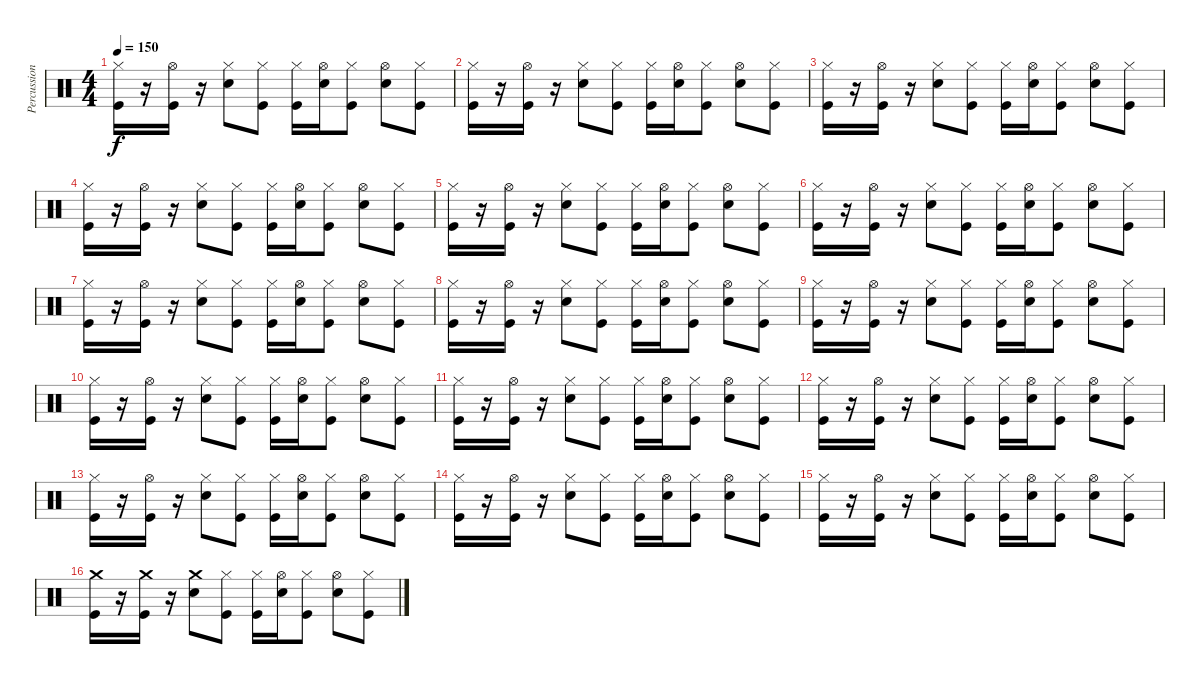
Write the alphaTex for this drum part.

\track ("Percussion" "Percussion") {instrument percussion}
\staff {score}
\articulation defaults
\ts (4 4)
\tempo 150
\clef neutral
\ks c
("Hi-Hat (closed)" "Kick (hit)").16{dy f} r.16 ("Hi-Hat (open)" "Kick (hit)").16 r.16 ("Hi-Hat (closed)" "Electric Snare (hit)").8 ("Hi-Hat (closed)" "Kick (hit)").8 ("Hi-Hat (closed)" "Kick (hit)").16 ("Hi-Hat (open)" "Electric Snare (hit)").16 ("Hi-Hat (closed)" "Kick (hit)").8 ("Hi-Hat (open)" "Electric Snare (hit)").8 ("Hi-Hat (closed)" "Kick (hit)").8 |
("Hi-Hat (closed)" "Kick (hit)").16 r.16 ("Hi-Hat (open)" "Kick (hit)").16 r.16 ("Hi-Hat (closed)" "Electric Snare (hit)").8 ("Hi-Hat (closed)" "Kick (hit)").8 ("Hi-Hat (closed)" "Kick (hit)").16 ("Hi-Hat (open)" "Electric Snare (hit)").16 ("Hi-Hat (closed)" "Kick (hit)").8 ("Hi-Hat (open)" "Electric Snare (hit)").8 ("Hi-Hat (closed)" "Kick (hit)").8 |
("Hi-Hat (closed)" "Kick (hit)").16 r.16 ("Hi-Hat (open)" "Kick (hit)").16 r.16 ("Hi-Hat (closed)" "Electric Snare (hit)").8 ("Hi-Hat (closed)" "Kick (hit)").8 ("Hi-Hat (closed)" "Kick (hit)").16 ("Hi-Hat (open)" "Electric Snare (hit)").16 ("Hi-Hat (closed)" "Kick (hit)").8 ("Hi-Hat (open)" "Electric Snare (hit)").8 ("Hi-Hat (closed)" "Kick (hit)").8 |
("Hi-Hat (closed)" "Kick (hit)").16 r.16 ("Hi-Hat (open)" "Kick (hit)").16 r.16 ("Hi-Hat (closed)" "Electric Snare (hit)").8 ("Hi-Hat (closed)" "Kick (hit)").8 ("Hi-Hat (closed)" "Kick (hit)").16 ("Hi-Hat (open)" "Electric Snare (hit)").16 ("Hi-Hat (closed)" "Kick (hit)").8 ("Hi-Hat (open)" "Electric Snare (hit)").8 ("Hi-Hat (closed)" "Kick (hit)").8 |
("Hi-Hat (closed)" "Kick (hit)").16 r.16 ("Hi-Hat (open)" "Kick (hit)").16 r.16 ("Hi-Hat (closed)" "Electric Snare (hit)").8 ("Hi-Hat (closed)" "Kick (hit)").8 ("Hi-Hat (closed)" "Kick (hit)").16 ("Hi-Hat (open)" "Electric Snare (hit)").16 ("Hi-Hat (closed)" "Kick (hit)").8 ("Hi-Hat (open)" "Electric Snare (hit)").8 ("Hi-Hat (closed)" "Kick (hit)").8 |
("Hi-Hat (closed)" "Kick (hit)").16 r.16 ("Hi-Hat (open)" "Kick (hit)").16 r.16 ("Hi-Hat (closed)" "Electric Snare (hit)").8 ("Hi-Hat (closed)" "Kick (hit)").8 ("Hi-Hat (closed)" "Kick (hit)").16 ("Hi-Hat (open)" "Electric Snare (hit)").16 ("Hi-Hat (closed)" "Kick (hit)").8 ("Hi-Hat (open)" "Electric Snare (hit)").8 ("Hi-Hat (closed)" "Kick (hit)").8 |
("Hi-Hat (closed)" "Kick (hit)").16 r.16 ("Hi-Hat (open)" "Kick (hit)").16 r.16 ("Hi-Hat (closed)" "Electric Snare (hit)").8 ("Hi-Hat (closed)" "Kick (hit)").8 ("Hi-Hat (closed)" "Kick (hit)").16 ("Hi-Hat (open)" "Electric Snare (hit)").16 ("Hi-Hat (closed)" "Kick (hit)").8 ("Hi-Hat (open)" "Electric Snare (hit)").8 ("Hi-Hat (closed)" "Kick (hit)").8 |
("Hi-Hat (closed)" "Kick (hit)").16 r.16 ("Hi-Hat (open)" "Kick (hit)").16 r.16 ("Hi-Hat (closed)" "Electric Snare (hit)").8 ("Hi-Hat (closed)" "Kick (hit)").8 ("Hi-Hat (closed)" "Kick (hit)").16 ("Hi-Hat (open)" "Electric Snare (hit)").16 ("Hi-Hat (closed)" "Kick (hit)").8 ("Hi-Hat (open)" "Electric Snare (hit)").8 ("Hi-Hat (closed)" "Kick (hit)").8 |
("Hi-Hat (closed)" "Kick (hit)").16 r.16 ("Hi-Hat (open)" "Kick (hit)").16 r.16 ("Hi-Hat (closed)" "Electric Snare (hit)").8 ("Hi-Hat (closed)" "Kick (hit)").8 ("Hi-Hat (closed)" "Kick (hit)").16 ("Hi-Hat (open)" "Electric Snare (hit)").16 ("Hi-Hat (closed)" "Kick (hit)").8 ("Hi-Hat (open)" "Electric Snare (hit)").8 ("Hi-Hat (closed)" "Kick (hit)").8 |
("Hi-Hat (closed)" "Kick (hit)").16 r.16 ("Hi-Hat (open)" "Kick (hit)").16 r.16 ("Hi-Hat (closed)" "Electric Snare (hit)").8 ("Hi-Hat (closed)" "Kick (hit)").8 ("Hi-Hat (closed)" "Kick (hit)").16 ("Hi-Hat (open)" "Electric Snare (hit)").16 ("Hi-Hat (closed)" "Kick (hit)").8 ("Hi-Hat (open)" "Electric Snare (hit)").8 ("Hi-Hat (closed)" "Kick (hit)").8 |
("Hi-Hat (closed)" "Kick (hit)").16 r.16 ("Hi-Hat (open)" "Kick (hit)").16 r.16 ("Hi-Hat (closed)" "Electric Snare (hit)").8 ("Hi-Hat (closed)" "Kick (hit)").8 ("Hi-Hat (closed)" "Kick (hit)").16 ("Hi-Hat (open)" "Electric Snare (hit)").16 ("Hi-Hat (closed)" "Kick (hit)").8 ("Hi-Hat (open)" "Electric Snare (hit)").8 ("Hi-Hat (closed)" "Kick (hit)").8 |
("Hi-Hat (closed)" "Kick (hit)").16 r.16 ("Hi-Hat (open)" "Kick (hit)").16 r.16 ("Hi-Hat (closed)" "Electric Snare (hit)").8 ("Hi-Hat (closed)" "Kick (hit)").8 ("Hi-Hat (closed)" "Kick (hit)").16 ("Hi-Hat (open)" "Electric Snare (hit)").16 ("Hi-Hat (closed)" "Kick (hit)").8 ("Hi-Hat (open)" "Electric Snare (hit)").8 ("Hi-Hat (closed)" "Kick (hit)").8 |
("Hi-Hat (closed)" "Kick (hit)").16 r.16 ("Hi-Hat (open)" "Kick (hit)").16 r.16 ("Hi-Hat (closed)" "Electric Snare (hit)").8 ("Hi-Hat (closed)" "Kick (hit)").8 ("Hi-Hat (closed)" "Kick (hit)").16 ("Hi-Hat (open)" "Electric Snare (hit)").16 ("Hi-Hat (closed)" "Kick (hit)").8 ("Hi-Hat (open)" "Electric Snare (hit)").8 ("Hi-Hat (closed)" "Kick (hit)").8 |
("Hi-Hat (closed)" "Kick (hit)").16 r.16 ("Hi-Hat (open)" "Kick (hit)").16 r.16 ("Hi-Hat (closed)" "Electric Snare (hit)").8 ("Hi-Hat (closed)" "Kick (hit)").8 ("Hi-Hat (closed)" "Kick (hit)").16 ("Hi-Hat (open)" "Electric Snare (hit)").16 ("Hi-Hat (closed)" "Kick (hit)").8 ("Hi-Hat (open)" "Electric Snare (hit)").8 ("Hi-Hat (closed)" "Kick (hit)").8 |
("Hi-Hat (closed)" "Kick (hit)").16 r.16 ("Hi-Hat (open)" "Kick (hit)").16 r.16 ("Hi-Hat (closed)" "Electric Snare (hit)").8 ("Hi-Hat (closed)" "Kick (hit)").8 ("Hi-Hat (closed)" "Kick (hit)").16 ("Hi-Hat (open)" "Electric Snare (hit)").16 ("Hi-Hat (closed)" "Kick (hit)").8 ("Hi-Hat (open)" "Electric Snare (hit)").8 ("Hi-Hat (closed)" "Kick (hit)").8 |
("Crash medium (hit)" "Kick (hit)").16 r.16 ("Crash medium (hit)" "Kick (hit)").16 r.16 ("Crash medium (hit)" "Electric Snare (hit)").8 ("Hi-Hat (closed)" "Kick (hit)").8 ("Hi-Hat (closed)" "Kick (hit)").16 ("Hi-Hat (open)" "Electric Snare (hit)").16 ("Hi-Hat (closed)" "Kick (hit)").8 ("Hi-Hat (open)" "Electric Snare (hit)").8 ("Hi-Hat (closed)" "Kick (hit)").8
